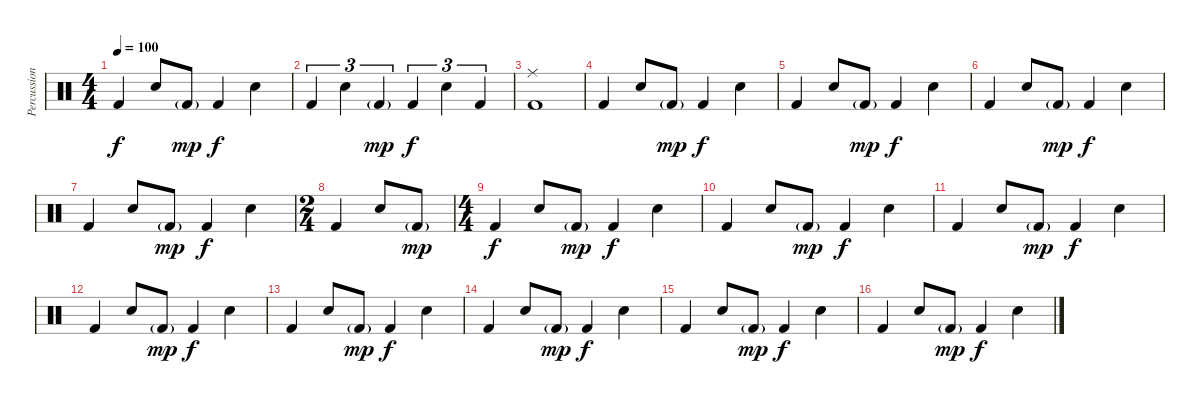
\track ("Percussion" "Percussion") {instrument percussion}
\staff {score}
\articulation defaults
\ts (4 4)
\tempo 100
\clef neutral
\ks c "Kick (hit) 2".4{dy f} "Snare (hit) 2".8 "Kick (hit) 2"{g}.8{dy mp} "Kick (hit) 2".4{dy f} "Snare (hit) 2".4
|
"Kick (hit) 2".4{tu (3 2)} "Snare (hit) 2".4{tu (3 2)} "Kick (hit) 2"{g}.4{tu (3 2) dy mp} "Kick (hit) 2".4{tu (3 2) dy f} "Snare (hit) 2".4{tu (3 2)} "Kick (hit) 2".4{tu (3 2)} |
("Ride (middle)" "Kick (hit) 2").1 |
"Kick (hit) 2".4 "Snare (hit) 2".8 "Kick (hit) 2"{g}.8{dy mp} "Kick (hit) 2".4{dy f} "Snare (hit) 2".4 |
"Kick (hit) 2".4 "Snare (hit) 2".8 "Kick (hit) 2"{g}.8{dy mp} "Kick (hit) 2".4{dy f} "Snare (hit) 2".4 |
"Kick (hit) 2".4 "Snare (hit) 2".8 "Kick (hit) 2"{g}.8{dy mp} "Kick (hit) 2".4{dy f} "Snare (hit) 2".4 |
"Kick (hit) 2".4 "Snare (hit) 2".8 "Kick (hit) 2"{g}.8{dy mp} "Kick (hit) 2".4{dy f} "Snare (hit) 2".4 |
\ts (2 4)
"Kick (hit) 2".4 "Snare (hit) 2".8 "Kick (hit) 2"{g}.8{dy mp} |
\ts (4 4)
"Kick (hit) 2".4{dy f} "Snare (hit) 2".8 "Kick (hit) 2"{g}.8{dy mp} "Kick (hit) 2".4{dy f} "Snare (hit) 2".4 |
"Kick (hit) 2".4 "Snare (hit) 2".8 "Kick (hit) 2"{g}.8{dy mp} "Kick (hit) 2".4{dy f} "Snare (hit) 2".4 |
"Kick (hit) 2".4 "Snare (hit) 2".8 "Kick (hit) 2"{g}.8{dy mp} "Kick (hit) 2".4{dy f} "Snare (hit) 2".4 |
"Kick (hit) 2".4 "Snare (hit) 2".8 "Kick (hit) 2"{g}.8{dy mp} "Kick (hit) 2".4{dy f} "Snare (hit) 2".4 |
"Kick (hit) 2".4 "Snare (hit) 2".8 "Kick (hit) 2"{g}.8{dy mp} "Kick (hit) 2".4{dy f} "Snare (hit) 2".4 |
"Kick (hit) 2".4 "Snare (hit) 2".8 "Kick (hit) 2"{g}.8{dy mp} "Kick (hit) 2".4{dy f} "Snare (hit) 2".4 |
"Kick (hit) 2".4 "Snare (hit) 2".8 "Kick (hit) 2"{g}.8{dy mp} "Kick (hit) 2".4{dy f} "Snare (hit) 2".4 |
"Kick (hit) 2".4 "Snare (hit) 2".8 "Kick (hit) 2"{g}.8{dy mp} "Kick (hit) 2".4{dy f} "Snare (hit) 2".4
